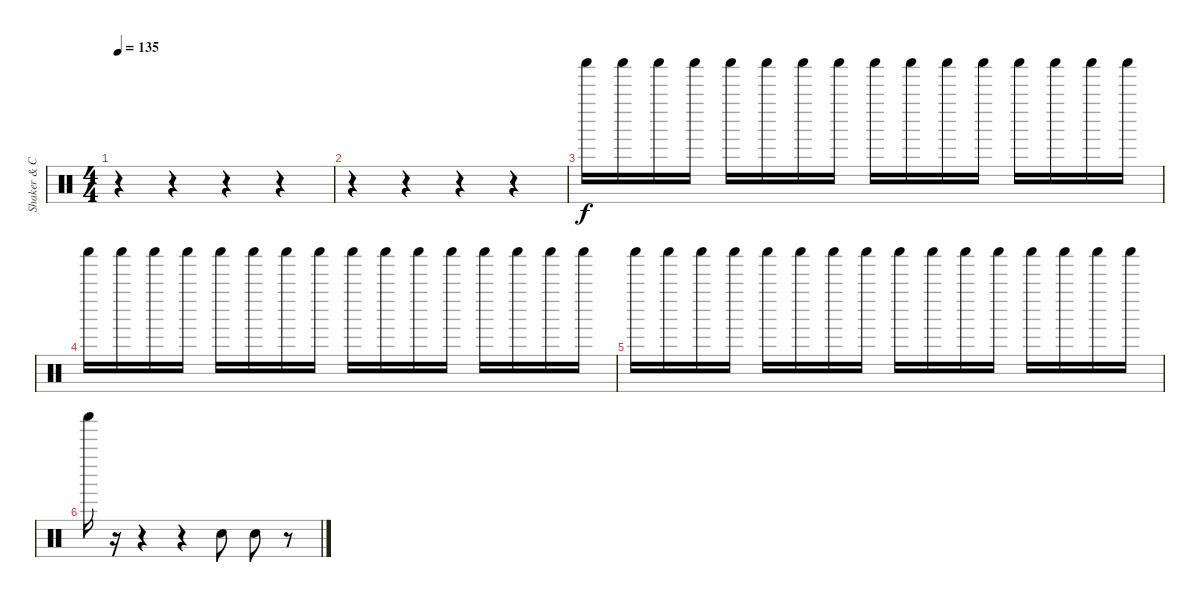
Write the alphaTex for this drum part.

\track ("Shaker & Claps" "Shaker & C") {instrument percussion}
\staff {score}
\articulation defaults
\ts (4 4)
\tempo 135
\clef neutral
\ks c
r.4{dy f} r.4 r.4 r.4 |
r.4 r.4 r.4 r.4 |
"Shaker (hit)".16{volume 8} "Shaker (hit)".16 "Shaker (hit)".16 "Shaker (hit)".16 "Shaker (hit)".16 "Shaker (hit)".16 "Shaker (hit)".16 "Shaker (hit)".16 "Shaker (hit)".16 "Shaker (hit)".16 "Shaker (hit)".16 "Shaker (hit)".16 "Shaker (hit)".16 "Shaker (hit)".16 "Shaker (hit)".16 "Shaker (hit)".16 |
"Shaker (hit)".16 "Shaker (hit)".16 "Shaker (hit)".16 "Shaker (hit)".16 "Shaker (hit)".16 "Shaker (hit)".16 "Shaker (hit)".16 "Shaker (hit)".16 "Shaker (hit)".16 "Shaker (hit)".16 "Shaker (hit)".16 "Shaker (hit)".16 "Shaker (hit)".16 "Shaker (hit)".16 "Shaker (hit)".16 "Shaker (hit)".16 |
"Shaker (hit)".16 "Shaker (hit)".16 "Shaker (hit)".16 "Shaker (hit)".16 "Shaker (hit)".16 "Shaker (hit)".16 "Shaker (hit)".16 "Shaker (hit)".16 "Shaker (hit)".16 "Shaker (hit)".16 "Shaker (hit)".16 "Shaker (hit)".16 "Shaker (hit)".16 "Shaker (hit)".16 "Shaker (hit)".16 "Shaker (hit)".16 |
"Shaker (hit)".16 r.16 r.4 r.4 "Hand Clap (hit)".8{volume 13} "Hand Clap (hit)".8 r.8
